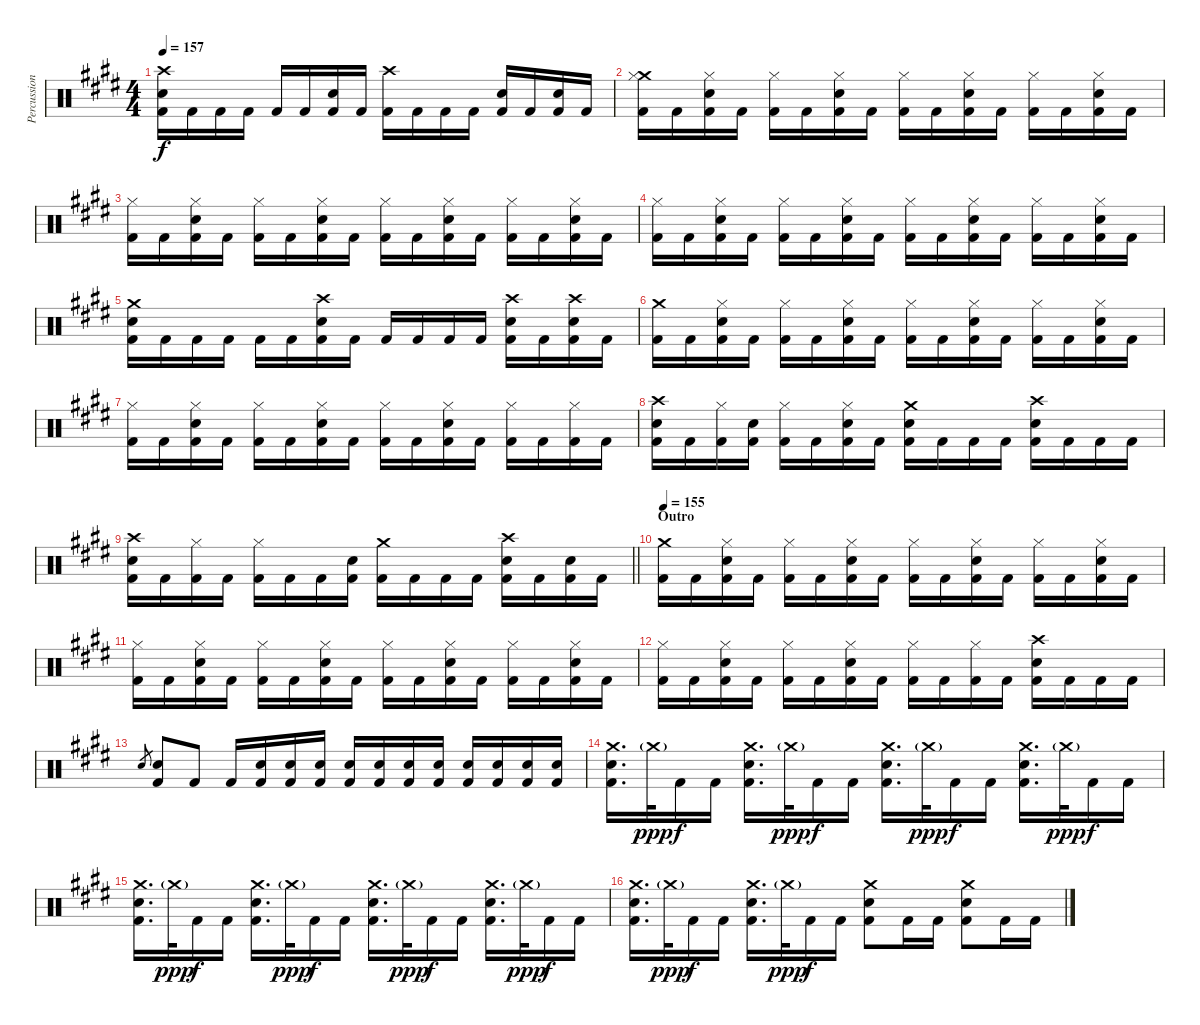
\track ("Percussion (Thomen Stauch)" "Percussion") {instrument percussion}
\staff {score}
\articulation defaults
\ts (4 4)
\tempo 157
\clef neutral
\ks c#minor
("Crash high (hit)" "Snare (hit) 2" "Kick (hit) 2").16{dy f} "Kick (hit) 2".16 "Kick (hit) 2".16 "Kick (hit) 2".16 "Kick (hit) 2".16 "Kick (hit) 2".16 ("Snare (hit) 2" "Kick (hit) 2").16 "Kick (hit) 2".16 ("Crash high (hit)" "Kick (hit) 2").16 "Kick (hit) 2".16 "Kick (hit) 2".16 "Kick (hit) 2".16 ("Snare (hit) 2" "Kick (hit) 2").16 "Kick (hit) 2".16 ("Snare (hit) 2" "Kick (hit) 2").16 "Kick (hit) 2".16 |
("Crash medium (hit)" "Hi-Hat (closed)" "Kick (hit) 2").16 "Kick (hit) 2".16 ("Hi-Hat (closed)" "Snare (hit) 2" "Kick (hit) 2").16 "Kick (hit) 2".16 ("Hi-Hat (closed)" "Kick (hit) 2").16 "Kick (hit) 2".16 ("Hi-Hat (closed)" "Snare (hit) 2" "Kick (hit) 2").16 "Kick (hit) 2".16 ("Hi-Hat (closed)" "Kick (hit) 2").16 "Kick (hit) 2".16 ("Hi-Hat (closed)" "Snare (hit) 2" "Kick (hit) 2").16 "Kick (hit) 2".16 ("Hi-Hat (closed)" "Kick (hit) 2").16 "Kick (hit) 2".16 ("Hi-Hat (closed)" "Snare (hit) 2" "Kick (hit) 2").16 "Kick (hit) 2".16 |
("Hi-Hat (closed)" "Kick (hit) 2").16 "Kick (hit) 2".16 ("Hi-Hat (closed)" "Snare (hit) 2" "Kick (hit) 2").16 "Kick (hit) 2".16 ("Hi-Hat (closed)" "Kick (hit) 2").16 "Kick (hit) 2".16 ("Hi-Hat (closed)" "Snare (hit) 2" "Kick (hit) 2").16 "Kick (hit) 2".16 ("Hi-Hat (closed)" "Kick (hit) 2").16 "Kick (hit) 2".16 ("Hi-Hat (closed)" "Snare (hit) 2" "Kick (hit) 2").16 "Kick (hit) 2".16 ("Hi-Hat (closed)" "Kick (hit) 2").16 "Kick (hit) 2".16 ("Hi-Hat (closed)" "Snare (hit) 2" "Kick (hit) 2").16 "Kick (hit) 2".16 |
("Hi-Hat (closed)" "Kick (hit) 2").16 "Kick (hit) 2".16 ("Hi-Hat (closed)" "Snare (hit) 2" "Kick (hit) 2").16 "Kick (hit) 2".16 ("Hi-Hat (closed)" "Kick (hit) 2").16 "Kick (hit) 2".16 ("Hi-Hat (closed)" "Snare (hit) 2" "Kick (hit) 2").16 "Kick (hit) 2".16 ("Hi-Hat (closed)" "Kick (hit) 2").16 "Kick (hit) 2".16 ("Hi-Hat (closed)" "Snare (hit) 2" "Kick (hit) 2").16 "Kick (hit) 2".16 ("Hi-Hat (closed)" "Kick (hit) 2").16 "Kick (hit) 2".16 ("Hi-Hat (closed)" "Snare (hit) 2" "Kick (hit) 2").16 "Kick (hit) 2".16 |
("Crash medium (hit)" "Snare (hit) 2" "Kick (hit) 2").16 "Kick (hit) 2".16 "Kick (hit) 2".16 "Kick (hit) 2".16 "Kick (hit) 2".16 "Kick (hit) 2".16 ("Crash high (hit)" "Snare (hit) 2" "Kick (hit) 2").16 "Kick (hit) 2".16 "Kick (hit) 2".16 "Kick (hit) 2".16 "Kick (hit) 2".16 "Kick (hit) 2".16 ("Crash high (hit)" "Snare (hit) 2" "Kick (hit) 2").16 "Kick (hit) 2".16 ("Crash high (hit)" "Snare (hit) 2" "Kick (hit) 2").16 "Kick (hit) 2".16 |
("Crash medium (hit)" "Kick (hit) 2").16 "Kick (hit) 2".16 ("Hi-Hat (closed)" "Snare (hit) 2" "Kick (hit) 2").16 "Kick (hit) 2".16 ("Hi-Hat (closed)" "Kick (hit) 2").16 "Kick (hit) 2".16 ("Hi-Hat (closed)" "Snare (hit) 2" "Kick (hit) 2").16 "Kick (hit) 2".16 ("Hi-Hat (closed)" "Kick (hit) 2").16 "Kick (hit) 2".16 ("Hi-Hat (closed)" "Snare (hit) 2" "Kick (hit) 2").16 "Kick (hit) 2".16 ("Hi-Hat (closed)" "Kick (hit) 2").16 "Kick (hit) 2".16 ("Hi-Hat (closed)" "Snare (hit) 2" "Kick (hit) 2").16 "Kick (hit) 2".16 |
("Hi-Hat (closed)" "Kick (hit) 2").16 "Kick (hit) 2".16 ("Hi-Hat (closed)" "Snare (hit) 2" "Kick (hit) 2").16 "Kick (hit) 2".16 ("Hi-Hat (closed)" "Kick (hit) 2").16 "Kick (hit) 2".16 ("Hi-Hat (closed)" "Snare (hit) 2" "Kick (hit) 2").16 "Kick (hit) 2".16 ("Hi-Hat (closed)" "Kick (hit) 2").16 "Kick (hit) 2".16 ("Hi-Hat (closed)" "Snare (hit) 2" "Kick (hit) 2").16 "Kick (hit) 2".16 ("Hi-Hat (closed)" "Kick (hit) 2").16 "Kick (hit) 2".16 ("Hi-Hat (closed)" "Kick (hit) 2").16 "Kick (hit) 2".16 |
("Crash high (hit)" "Snare (hit) 2" "Kick (hit) 2").16 "Kick (hit) 2".16 ("Hi-Hat (closed)" "Kick (hit) 2").16 ("Snare (hit) 2" "Kick (hit) 2").16 ("Hi-Hat (closed)" "Kick (hit) 2").16 "Kick (hit) 2".16 ("Hi-Hat (closed)" "Snare (hit) 2" "Kick (hit) 2").16 "Kick (hit) 2".16 ("Crash medium (hit)" "Snare (hit) 2" "Kick (hit) 2").16 "Kick (hit) 2".16 "Kick (hit) 2".16 "Kick (hit) 2".16 ("Crash high (hit)" "Snare (hit) 2" "Kick (hit) 2").16 "Kick (hit) 2".16 "Kick (hit) 2".16 "Kick (hit) 2".16 |
\barLineRight lightlight
("Crash high (hit)" "Snare (hit) 2" "Kick (hit) 2").16 "Kick (hit) 2".16 ("Hi-Hat (closed)" "Kick (hit) 2").16 "Kick (hit) 2".16 ("Hi-Hat (closed)" "Kick (hit) 2").16 "Kick (hit) 2".16 "Kick (hit) 2".16 ("Snare (hit) 2" "Kick (hit) 2").16 ("Crash medium (hit)" "Kick (hit) 2").16 "Kick (hit) 2".16 "Kick (hit) 2".16 "Kick (hit) 2".16 ("Crash high (hit)" "Snare (hit) 2" "Kick (hit) 2").16 "Kick (hit) 2".16 ("Snare (hit) 2" "Kick (hit) 2").16 "Kick (hit) 2".16 |
\section ("" "Outro")
\tempo 155
("Crash medium (hit)" "Kick (hit) 2").16 "Kick (hit) 2".16 ("Hi-Hat (closed)" "Snare (hit) 2" "Kick (hit) 2").16 "Kick (hit) 2".16 ("Hi-Hat (closed)" "Kick (hit) 2").16 "Kick (hit) 2".16 ("Hi-Hat (closed)" "Snare (hit) 2" "Kick (hit) 2").16 "Kick (hit) 2".16 ("Hi-Hat (closed)" "Kick (hit) 2").16 "Kick (hit) 2".16 ("Hi-Hat (closed)" "Snare (hit) 2" "Kick (hit) 2").16 "Kick (hit) 2".16 ("Hi-Hat (closed)" "Kick (hit) 2").16 "Kick (hit) 2".16 ("Hi-Hat (closed)" "Snare (hit) 2" "Kick (hit) 2").16 "Kick (hit) 2".16 |
("Hi-Hat (closed)" "Kick (hit) 2").16 "Kick (hit) 2".16 ("Hi-Hat (closed)" "Snare (hit) 2" "Kick (hit) 2").16 "Kick (hit) 2".16 ("Hi-Hat (closed)" "Kick (hit) 2").16 "Kick (hit) 2".16 ("Hi-Hat (closed)" "Snare (hit) 2" "Kick (hit) 2").16 "Kick (hit) 2".16 ("Hi-Hat (closed)" "Kick (hit) 2").16 "Kick (hit) 2".16 ("Hi-Hat (closed)" "Snare (hit) 2" "Kick (hit) 2").16 "Kick (hit) 2".16 ("Hi-Hat (closed)" "Kick (hit) 2").16 "Kick (hit) 2".16 ("Hi-Hat (closed)" "Snare (hit) 2" "Kick (hit) 2").16 "Kick (hit) 2".16 |
("Hi-Hat (closed)" "Kick (hit) 2").16 "Kick (hit) 2".16 ("Hi-Hat (closed)" "Snare (hit) 2" "Kick (hit) 2").16 "Kick (hit) 2".16 ("Hi-Hat (closed)" "Kick (hit) 2").16 "Kick (hit) 2".16 ("Hi-Hat (closed)" "Snare (hit) 2" "Kick (hit) 2").16 "Kick (hit) 2".16 ("Hi-Hat (closed)" "Kick (hit) 2").16 "Kick (hit) 2".16 ("Hi-Hat (closed)" "Kick (hit) 2").16 "Kick (hit) 2".16 ("Crash high (hit)" "Snare (hit) 2" "Kick (hit) 2").16 "Kick (hit) 2".16 "Kick (hit) 2".16 "Kick (hit) 2".16 |
"Snare (hit) 2".8{gr} ("Snare (hit) 2" "Kick (hit) 2").8 "Kick (hit) 2".8 "Kick (hit) 2".16 ("Snare (hit) 2" "Kick (hit) 2").16 ("Snare (hit) 2" "Kick (hit) 2").16 ("Snare (hit) 2" "Kick (hit) 2").16 ("Snare (hit) 2" "Kick (hit) 2").16 ("Snare (hit) 2" "Kick (hit) 2").16 ("Snare (hit) 2" "Kick (hit) 2").16 ("Snare (hit) 2" "Kick (hit) 2").16 ("Snare (hit) 2" "Kick (hit) 2").16 ("Snare (hit) 2" "Kick (hit) 2").16 ("Snare (hit) 2" "Kick (hit) 2").16 ("Snare (hit) 2" "Kick (hit) 2").16 |
("Crash medium (hit)" "Snare (hit) 2" "Kick (hit) 2").16{d} "Crash medium (hit)"{g}.32{dy ppp volume 0} "Kick (hit) 2".16{dy f volume 13} "Kick (hit) 2".16 ("Crash medium (hit)" "Snare (hit) 2" "Kick (hit) 2").16{d} "Crash medium (hit)"{g}.32{dy ppp volume 0} "Kick (hit) 2".16{dy f volume 13} "Kick (hit) 2".16 ("Crash medium (hit)" "Snare (hit) 2" "Kick (hit) 2").16{d} "Crash medium (hit)"{g}.32{dy ppp volume 0} "Kick (hit) 2".16{dy f volume 13} "Kick (hit) 2".16 ("Crash medium (hit)" "Snare (hit) 2" "Kick (hit) 2").16{d} "Crash medium (hit)"{g}.32{dy ppp volume 0} "Kick (hit) 2".16{dy f volume 13} "Kick (hit) 2".16 |
("Crash medium (hit)" "Snare (hit) 2" "Kick (hit) 2").16{d} "Crash medium (hit)"{g}.32{dy ppp volume 0} "Kick (hit) 2".16{dy f volume 13} "Kick (hit) 2".16 ("Crash medium (hit)" "Snare (hit) 2" "Kick (hit) 2").16{d} "Crash medium (hit)"{g}.32{dy ppp volume 0} "Kick (hit) 2".16{dy f volume 13} "Kick (hit) 2".16 ("Crash medium (hit)" "Snare (hit) 2" "Kick (hit) 2").16{d} "Crash medium (hit)"{g}.32{dy ppp volume 0} "Kick (hit) 2".16{dy f volume 13} "Kick (hit) 2".16 ("Crash medium (hit)" "Snare (hit) 2" "Kick (hit) 2").16{d} "Crash medium (hit)"{g}.32{dy ppp volume 0} "Kick (hit) 2".16{dy f volume 13} "Kick (hit) 2".16 |
("Crash medium (hit)" "Snare (hit) 2" "Kick (hit) 2").16{d} "Crash medium (hit)"{g}.32{dy ppp volume 0} "Kick (hit) 2".16{dy f volume 13} "Kick (hit) 2".16 ("Crash medium (hit)" "Snare (hit) 2" "Kick (hit) 2").16{d} "Crash medium (hit)"{g}.32{dy ppp volume 0} "Kick (hit) 2".16{dy f volume 13} "Kick (hit) 2".16 ("Crash medium (hit)" "Snare (hit) 2" "Kick (hit) 2").8 "Kick (hit) 2".16 "Kick (hit) 2".16 ("Crash medium (hit)" "Snare (hit) 2" "Kick (hit) 2").8 "Kick (hit) 2".16 "Kick (hit) 2".16
